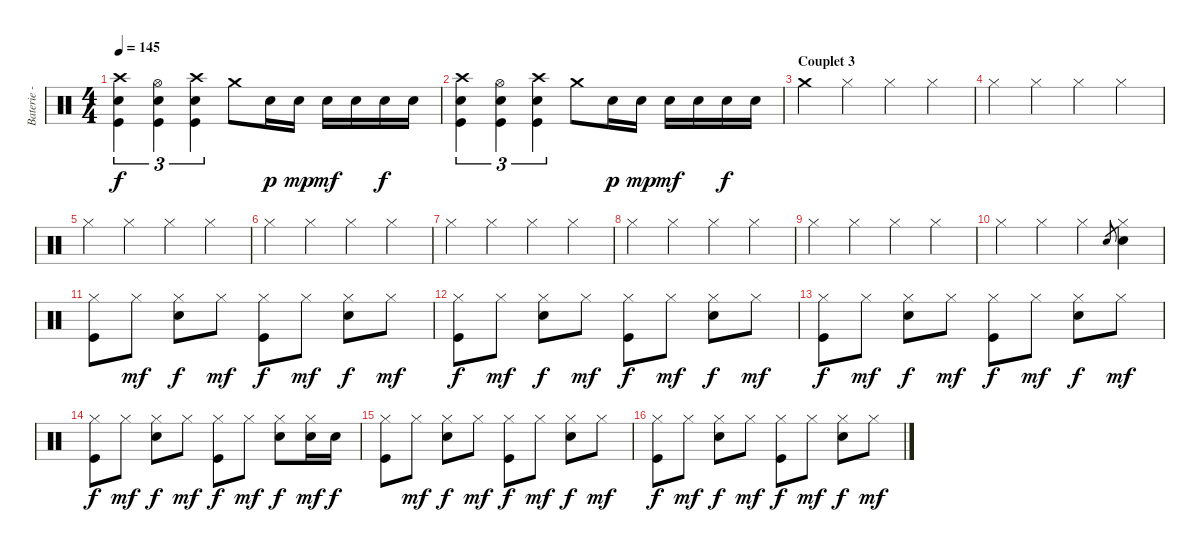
\track ("Baterie - Alex" "Baterie - ") {instrument percussion}
\staff {score}
\articulation defaults
\ts (4 4)
\tempo 145
\clef neutral
\ks c
("Crash high (hit)" "Electric Snare (hit)" "Kick (hit)").4{tu (3 2) dy f} ("Hi-Hat (open)" "Electric Snare (hit)" "Kick (hit)").4{tu (3 2)} ("Crash high (hit)" "Electric Snare (hit)" "Kick (hit)").4{tu (3 2)} "Crash medium (hit)".8 "Electric Snare (hit)".16{dy p} "Electric Snare (hit)".16{dy mp} "Electric Snare (hit)".16{dy mf} "Electric Snare (hit)".16 "Electric Snare (hit)".16{dy f} "Electric Snare (hit)".16 |
("Crash high (hit)" "Electric Snare (hit)" "Kick (hit)").4{tu (3 2)} ("Hi-Hat (open)" "Electric Snare (hit)" "Kick (hit)").4{tu (3 2)} ("Crash high (hit)" "Electric Snare (hit)" "Kick (hit)").4{tu (3 2)} "Crash medium (hit)".8 "Electric Snare (hit)".16{dy p} "Electric Snare (hit)".16{dy mp} "Electric Snare (hit)".16{dy mf} "Electric Snare (hit)".16 "Electric Snare (hit)".16{dy f} "Electric Snare (hit)".16 |
\section ("" "Couplet 3")
"Crash medium (hit)".4 "Hi-Hat (closed)".4 "Hi-Hat (closed)".4 "Hi-Hat (closed)".4 |
"Hi-Hat (closed)".4 "Hi-Hat (closed)".4 "Hi-Hat (closed)".4 "Hi-Hat (closed)".4 |
"Hi-Hat (closed)".4 "Hi-Hat (closed)".4 "Hi-Hat (closed)".4 "Hi-Hat (closed)".4 |
"Hi-Hat (closed)".4 "Hi-Hat (closed)".4 "Hi-Hat (closed)".4 "Hi-Hat (closed)".4 |
"Hi-Hat (closed)".4 "Hi-Hat (closed)".4 "Hi-Hat (closed)".4 "Hi-Hat (closed)".4 |
"Hi-Hat (closed)".4 "Hi-Hat (closed)".4 "Hi-Hat (closed)".4 "Hi-Hat (closed)".4 |
"Hi-Hat (closed)".4 "Hi-Hat (closed)".4 "Hi-Hat (closed)".4 "Hi-Hat (closed)".4 |
"Hi-Hat (closed)".4 "Hi-Hat (closed)".4 "Hi-Hat (closed)".4 "Electric Snare (hit)".8{gr} ("Hi-Hat (closed)" "Electric Snare (hit)").4 |
("Hi-Hat (closed)" "Kick (hit)").8 "Hi-Hat (closed)".8{dy mf} ("Hi-Hat (closed)" "Electric Snare (hit)").8{dy f} "Hi-Hat (closed)".8{dy mf} ("Hi-Hat (closed)" "Kick (hit)").8{dy f} "Hi-Hat (closed)".8{dy mf} ("Hi-Hat (closed)" "Electric Snare (hit)").8{dy f} "Hi-Hat (closed)".8{dy mf} |
("Hi-Hat (closed)" "Kick (hit)").8{dy f} "Hi-Hat (closed)".8{dy mf} ("Hi-Hat (closed)" "Electric Snare (hit)").8{dy f} "Hi-Hat (closed)".8{dy mf} ("Hi-Hat (closed)" "Kick (hit)").8{dy f} "Hi-Hat (closed)".8{dy mf} ("Hi-Hat (closed)" "Electric Snare (hit)").8{dy f} "Hi-Hat (closed)".8{dy mf} |
("Hi-Hat (closed)" "Kick (hit)").8{dy f} "Hi-Hat (closed)".8{dy mf} ("Hi-Hat (closed)" "Electric Snare (hit)").8{dy f} "Hi-Hat (closed)".8{dy mf} ("Hi-Hat (closed)" "Kick (hit)").8{dy f} "Hi-Hat (closed)".8{dy mf} ("Hi-Hat (closed)" "Electric Snare (hit)").8{dy f} "Hi-Hat (closed)".8{dy mf} |
("Hi-Hat (closed)" "Kick (hit)").8{dy f} "Hi-Hat (closed)".8{dy mf} ("Hi-Hat (closed)" "Electric Snare (hit)").8{dy f} "Hi-Hat (closed)".8{dy mf} ("Hi-Hat (closed)" "Kick (hit)").8{dy f} "Hi-Hat (closed)".8{dy mf} ("Hi-Hat (closed)" "Electric Snare (hit)").8{dy f} ("Hi-Hat (closed)" "Electric Snare (hit)").16{dy mf} "Electric Snare (hit)".16{dy f} |
("Hi-Hat (closed)" "Kick (hit)").8 "Hi-Hat (closed)".8{dy mf} ("Hi-Hat (closed)" "Electric Snare (hit)").8{dy f} "Hi-Hat (closed)".8{dy mf} ("Hi-Hat (closed)" "Kick (hit)").8{dy f} "Hi-Hat (closed)".8{dy mf} ("Hi-Hat (closed)" "Electric Snare (hit)").8{dy f} "Hi-Hat (closed)".8{dy mf} |
("Hi-Hat (closed)" "Kick (hit)").8{dy f} "Hi-Hat (closed)".8{dy mf} ("Hi-Hat (closed)" "Electric Snare (hit)").8{dy f} "Hi-Hat (closed)".8{dy mf} ("Hi-Hat (closed)" "Kick (hit)").8{dy f} "Hi-Hat (closed)".8{dy mf} ("Hi-Hat (closed)" "Electric Snare (hit)").8{dy f} "Hi-Hat (closed)".8{dy mf}
